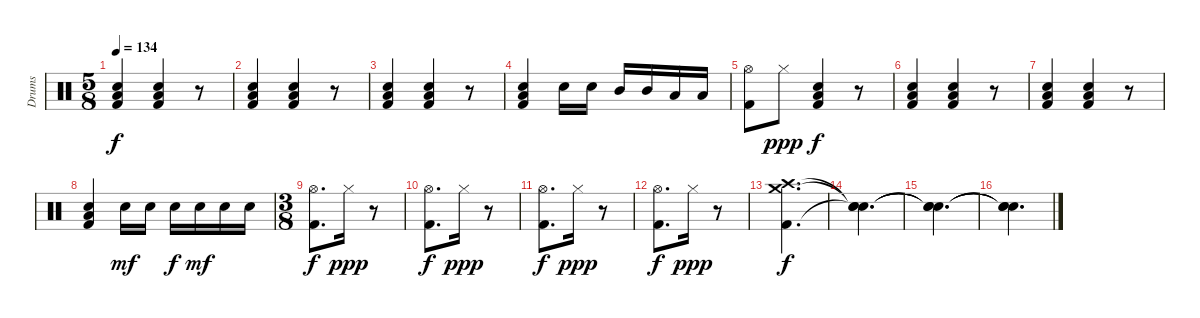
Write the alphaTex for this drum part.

\track ("Drums" "Drums") {instrument percussion}
\staff {score}
\articulation defaults
\ts (5 8)
\tempo 134
\clef neutral
\ks c
("Low Tom (hit)" "Electric Snare (hit)" "Kick (hit) 2").4{dy f} ("Low Tom (hit)" "Electric Snare (hit)" "Kick (hit) 2").4 r.8 |
("Low Tom (hit)" "Electric Snare (hit)" "Kick (hit) 2").4 ("Low Tom (hit)" "Electric Snare (hit)" "Kick (hit) 2").4 r.8 |
("Low Tom (hit)" "Electric Snare (hit)" "Kick (hit) 2").4 ("Low Tom (hit)" "Electric Snare (hit)" "Kick (hit) 2").4 r.8 |
("Low Tom (hit)" "Electric Snare (hit)" "Kick (hit) 2").4 "Electric Snare (hit)".16 "Electric Snare (hit)".16 "Mid Tom (hit)".16 "Mid Tom (hit)".16 "Low Tom (hit)".16 "Low Tom (hit)".16 |
("Hi-Hat (open)" "Kick (hit) 2").8 "Hi-Hat (closed)".8{dy ppp} ("Low Tom (hit)" "Electric Snare (hit)" "Kick (hit) 2").4{dy f} r.8 |
("Low Tom (hit)" "Electric Snare (hit)" "Kick (hit) 2").4 ("Low Tom (hit)" "Electric Snare (hit)" "Kick (hit) 2").4 r.8 |
("Low Tom (hit)" "Electric Snare (hit)" "Kick (hit) 2").4 ("Low Tom (hit)" "Electric Snare (hit)" "Kick (hit) 2").4 r.8 |
("Low Tom (hit)" "Electric Snare (hit)" "Kick (hit) 2").4 "Electric Snare (hit)".16{dy mf} "Electric Snare (hit)".16 "Electric Snare (hit)".16{dy f} "Electric Snare (hit)".16{dy mf} "Electric Snare (hit)".16 "Electric Snare (hit)".16 |
\ts (3 8)
("Hi-Hat (open)" "Kick (hit) 2").8{d dy f} "Hi-Hat (closed)".16{dy ppp} r.8 |
("Hi-Hat (open)" "Kick (hit) 2").8{d dy f} "Hi-Hat (closed)".16{dy ppp} r.8 |
("Hi-Hat (open)" "Kick (hit) 2").8{d dy f} "Hi-Hat (closed)".16{dy ppp} r.8 |
("Hi-Hat (open)" "Kick (hit) 2").8{d dy f} "Hi-Hat (closed)".16{dy ppp} r.8 |
("Crash high (hit)" "Crash medium (hit)" "Kick (hit) 2").4{d dy f} |
("Snare (hit)"{t} "Snare (hit)"{t} "Snare (hit)"{t}).4{d} |
("Snare (hit)"{t} "Snare (hit)"{t} "Snare (hit)"{t}).4{d} |
("Snare (hit)"{t} "Snare (hit)"{t} "Snare (hit)"{t}).4{d}
